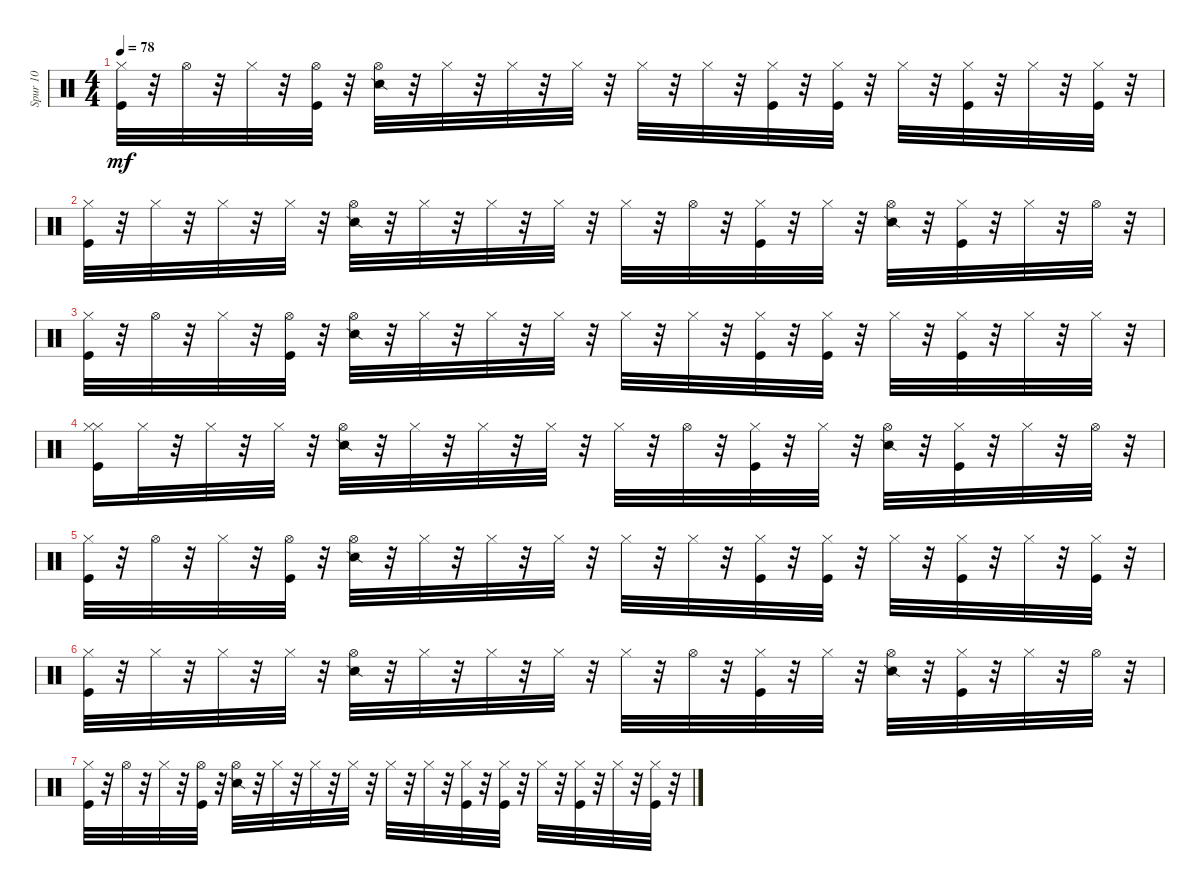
\track ("Spur 10" "Spur 10") {instrument percussion}
\staff {score}
\articulation defaults
\ts (4 4)
\tempo 78
\clef neutral
\ks c
("Hi-Hat (closed)" "Kick (hit)").32{dy mf} r.32 "Hi-Hat (open)".32 r.32 "Hi-Hat (closed)".32 r.32 ("Hi-Hat (open)" "Kick (hit)").32 r.32 ("Hi-Hat (open)" "Snare (side stick) 2").32 r.32 "Hi-Hat (closed)".32 r.32 "Hi-Hat (closed)".32 r.32 "Hi-Hat (closed)".32 r.32 "Hi-Hat (closed)".32 r.32 "Hi-Hat (closed)".32 r.32 ("Hi-Hat (closed)" "Kick (hit)").32 r.32 ("Hi-Hat (closed)" "Kick (hit)").32 r.32 "Hi-Hat (closed)".32 r.32 ("Hi-Hat (closed)" "Kick (hit)").32 r.32 "Hi-Hat (closed)".32 r.32 ("Hi-Hat (closed)" "Kick (hit)").32 r.32 |
("Hi-Hat (closed)" "Kick (hit)").32 r.32 "Hi-Hat (closed)".32 r.32 "Hi-Hat (closed)".32 r.32 "Hi-Hat (closed)".32 r.32 ("Hi-Hat (open)" "Snare (side stick) 2").32 r.32 "Hi-Hat (closed)".32 r.32 "Hi-Hat (closed)".32 r.32 "Hi-Hat (closed)".32 r.32 "Hi-Hat (closed)".32 r.32 "Hi-Hat (open)".32 r.32 ("Hi-Hat (closed)" "Kick (hit)").32 r.32 "Hi-Hat (closed)".32 r.32 ("Hi-Hat (open)" "Snare (side stick) 2").32 r.32 ("Hi-Hat (closed)" "Kick (hit)").32 r.32 "Hi-Hat (closed)".32 r.32 "Hi-Hat (open)".32 r.32 |
("Hi-Hat (closed)" "Kick (hit)").32 r.32 "Hi-Hat (open)".32 r.32 "Hi-Hat (closed)".32 r.32 ("Hi-Hat (open)" "Kick (hit)").32 r.32 ("Hi-Hat (open)" "Snare (side stick) 2").32 r.32 "Hi-Hat (closed)".32 r.32 "Hi-Hat (closed)".32 r.32 "Hi-Hat (closed)".32 r.32 "Hi-Hat (closed)".32 r.32 "Hi-Hat (closed)".32 r.32 ("Kick (hit)" "Hi-Hat (closed)").32 r.32 ("Kick (hit)" "Hi-Hat (closed)").32 r.32 "Hi-Hat (closed)".32 r.32 ("Kick (hit)" "Hi-Hat (closed)").32 r.32 "Hi-Hat (closed)".32 r.32 "Hi-Hat (closed)".32 r.32 |
("Hi-Hat (closed)" "Kick (hit)" "Hi-Hat (closed)").16 "Hi-Hat (closed)".32 r.32 "Hi-Hat (closed)".32 r.32 "Hi-Hat (closed)".32 r.32 ("Hi-Hat (open)" "Snare (side stick) 2").32 r.32 "Hi-Hat (closed)".32 r.32 "Hi-Hat (closed)".32 r.32 "Hi-Hat (closed)".32 r.32 "Hi-Hat (closed)".32 r.32 "Hi-Hat (open)".32 r.32 ("Hi-Hat (closed)" "Kick (hit)").32 r.32 "Hi-Hat (closed)".32 r.32 ("Hi-Hat (open)" "Snare (side stick) 2").32 r.32 ("Hi-Hat (closed)" "Kick (hit)").32 r.32 "Hi-Hat (closed)".32 r.32 "Hi-Hat (open)".32 r.32 |
("Hi-Hat (closed)" "Kick (hit)").32 r.32 "Hi-Hat (open)".32 r.32 "Hi-Hat (closed)".32 r.32 ("Hi-Hat (open)" "Kick (hit)").32 r.32 ("Hi-Hat (open)" "Snare (side stick) 2").32 r.32 "Hi-Hat (closed)".32 r.32 "Hi-Hat (closed)".32 r.32 "Hi-Hat (closed)".32 r.32 "Hi-Hat (closed)".32 r.32 "Hi-Hat (closed)".32 r.32 ("Hi-Hat (closed)" "Kick (hit)").32 r.32 ("Hi-Hat (closed)" "Kick (hit)").32 r.32 "Hi-Hat (closed)".32 r.32 ("Hi-Hat (closed)" "Kick (hit)").32 r.32 "Hi-Hat (closed)".32 r.32 ("Hi-Hat (closed)" "Kick (hit)").32 r.32 |
("Hi-Hat (closed)" "Kick (hit)").32 r.32 "Hi-Hat (closed)".32 r.32 "Hi-Hat (closed)".32 r.32 "Hi-Hat (closed)".32 r.32 ("Hi-Hat (open)" "Snare (side stick) 2").32 r.32 "Hi-Hat (closed)".32 r.32 "Hi-Hat (closed)".32 r.32 "Hi-Hat (closed)".32 r.32 "Hi-Hat (closed)".32 r.32 "Hi-Hat (open)".32 r.32 ("Hi-Hat (closed)" "Kick (hit)").32 r.32 "Hi-Hat (closed)".32 r.32 ("Hi-Hat (open)" "Snare (side stick) 2").32 r.32 ("Hi-Hat (closed)" "Kick (hit)").32 r.32 "Hi-Hat (closed)".32 r.32 "Hi-Hat (open)".32 r.32 |
("Hi-Hat (closed)" "Kick (hit)").32 r.32 "Hi-Hat (open)".32 r.32 "Hi-Hat (closed)".32 r.32 ("Hi-Hat (open)" "Kick (hit)").32 r.32 ("Hi-Hat (open)" "Snare (side stick) 2").32 r.32 "Hi-Hat (closed)".32 r.32 "Hi-Hat (closed)".32 r.32 "Hi-Hat (closed)".32 r.32 "Hi-Hat (closed)".32 r.32 "Hi-Hat (closed)".32 r.32 ("Kick (hit)" "Hi-Hat (closed)").32 r.32 ("Hi-Hat (closed)" "Kick (hit)").32 r.32 "Hi-Hat (closed)".32 r.32 ("Hi-Hat (closed)" "Kick (hit)").32 r.32 "Hi-Hat (closed)".32 r.32 ("Hi-Hat (closed)" "Kick (hit)").32 r.32
